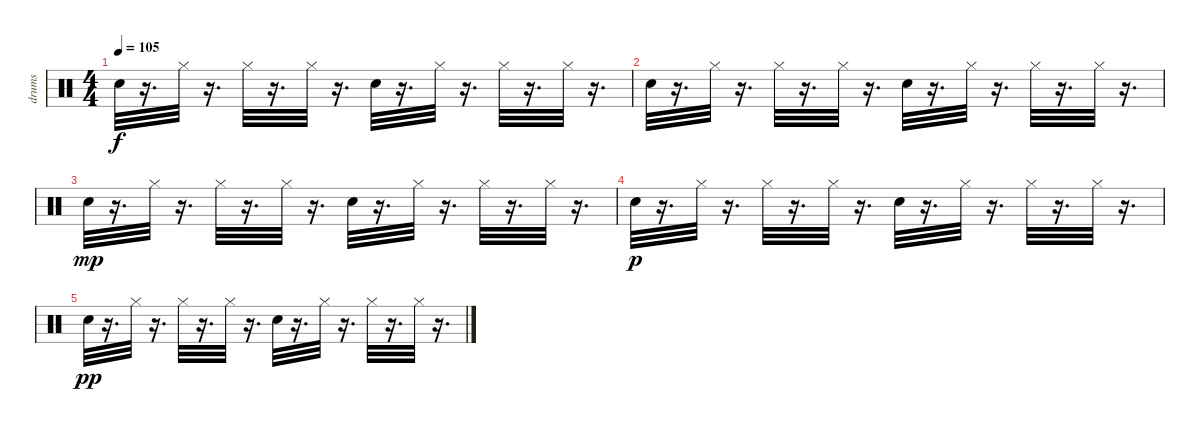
\track ("drums" "drums") {instrument percussion}
\staff {score}
\articulation defaults
\ts (4 4)
\tempo 105
\clef neutral
\ks c "Snare (hit) 2".32{dy f}
r.16{d} "Hi-Hat (closed)".32 r.16{d} "Hi-Hat (closed)".32 r.16{d} "Hi-Hat (closed)".32 r.16{d} "Snare (hit) 2".32 r.16{d} "Hi-Hat (closed)".32 r.16{d} "Hi-Hat (closed)".32 r.16{d} "Hi-Hat (closed)".32 r.16{d} |
"Snare (hit) 2".32 r.16{d} "Hi-Hat (closed)".32 r.16{d} "Hi-Hat (closed)".32 r.16{d} "Hi-Hat (closed)".32 r.16{d} "Snare (hit) 2".32 r.16{d} "Hi-Hat (closed)".32 r.16{d} "Hi-Hat (closed)".32 r.16{d} "Hi-Hat (closed)".32 r.16{d} |
"Snare (hit) 2".32{dy mp} r.16{d} "Hi-Hat (closed)".32 r.16{d} "Hi-Hat (closed)".32 r.16{d} "Hi-Hat (closed)".32 r.16{d} "Snare (hit) 2".32 r.16{d} "Hi-Hat (closed)".32 r.16{d} "Hi-Hat (closed)".32 r.16{d} "Hi-Hat (closed)".32 r.16{d} |
"Snare (hit) 2".32{dy p} r.16{d} "Hi-Hat (closed)".32 r.16{d} "Hi-Hat (closed)".32 r.16{d} "Hi-Hat (closed)".32 r.16{d} "Snare (hit) 2".32 r.16{d} "Hi-Hat (closed)".32 r.16{d} "Hi-Hat (closed)".32 r.16{d} "Hi-Hat (closed)".32 r.16{d} |
"Snare (hit) 2".32{dy pp} r.16{d} "Hi-Hat (closed)".32 r.16{d} "Hi-Hat (closed)".32 r.16{d} "Hi-Hat (closed)".32 r.16{d} "Snare (hit) 2".32 r.16{d} "Hi-Hat (closed)".32 r.16{d} "Hi-Hat (closed)".32 r.16{d} "Hi-Hat (closed)".32 r.16{d}
